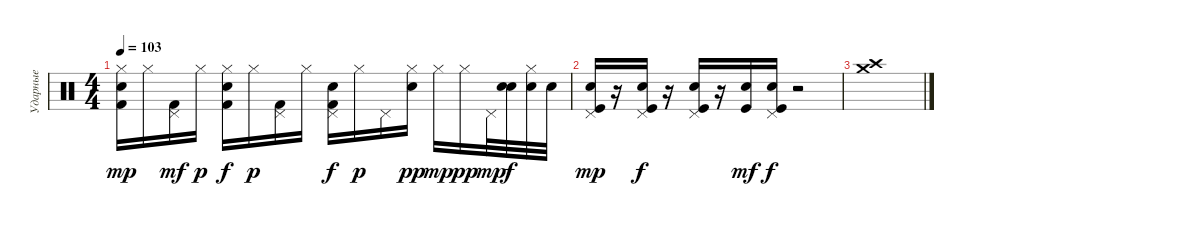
\track ("Ударные" "Ударные") {instrument percussion}
\staff {score}
\articulation defaults
\ts (4 4)
\tempo 103
\clef neutral
\ks c
("Electric Snare (hit)" "Kick (hit) 2" "Hi-Hat (closed)").16{dy mp} "Hi-Hat (closed)".16 ("Pedal Hi-Hat (hit)" "Kick (hit) 2").16{dy mf} "Hi-Hat (closed)".16{dy p} ("Hi-Hat (closed)" "Electric Snare (hit)" "Kick (hit) 2").16{dy f} "Hi-Hat (closed)".16{dy p} ("Pedal Hi-Hat (hit)" "Kick (hit) 2").16 "Hi-Hat (closed)".16 ("Electric Snare (hit)" "Kick (hit) 2" "Pedal Hi-Hat (hit)").16{dy f} "Hi-Hat (closed)".16{dy p} "Pedal Hi-Hat (hit)".16 ("Electric Snare (hit)" "Hi-Hat (closed)").16{dy pp} "Hi-Hat (closed)".16{dy mp} "Hi-Hat (closed)".16{dy pp} "Pedal Hi-Hat (hit)".32{dy mp} ("Electric Snare (hit)" "Electric Snare (hit)").32{dy f} ("Electric Snare (hit)" "Hi-Hat (closed)").32 "Electric Snare (hit)".32 |
("Electric Snare (hit)" "Pedal Hi-Hat (hit)" "Kick (hit)").16{dy mp} r.16 ("Electric Snare (hit)" "Pedal Hi-Hat (hit)" "Kick (hit)").16{dy f} r.16 ("Electric Snare (hit)" "Pedal Hi-Hat (hit)" "Kick (hit)").16 r.16 ("Electric Snare (hit)" "Kick (hit)").16{dy mf} ("Electric Snare (hit)" "Pedal Hi-Hat (hit)" "Kick (hit)").16{dy f} r.2 |
("Crash medium (hit)" "Crash high (hit)").1
